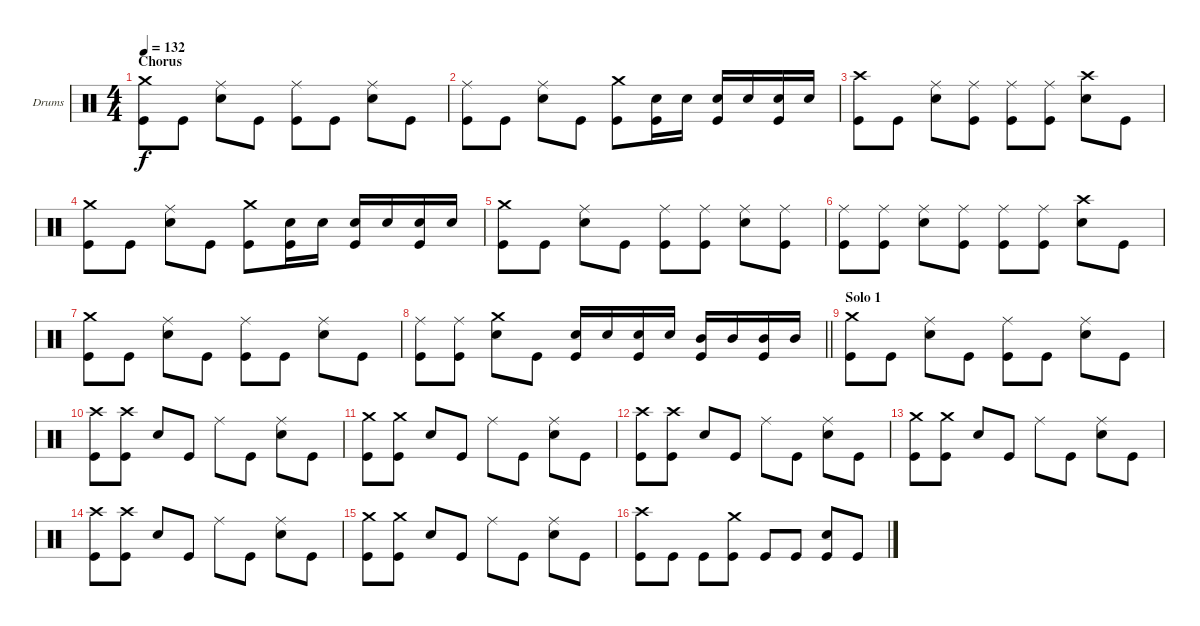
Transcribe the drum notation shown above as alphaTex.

\bracketExtendMode groupsimilarinstruments
\firstSystemTrackNameOrientation horizontal
\otherSystemsTrackNameOrientation horizontal
\track ("Drumkit" "Drums") {instrument percussion}
\staff {score}
\articulation defaults
\ts (4 4)
\section ("" "Chorus")
\tempo 132
\clef neutral
\ks c
("Crash medium (hit)" "Kick (hit)").8{dy f} "Kick (hit)".8 ("Ride (middle)" "Snare (hit) 2").8 "Kick (hit)".8 ("Ride (middle)" "Kick (hit)").8 "Kick (hit)".8 ("Ride (middle)" "Snare (hit) 2").8 "Kick (hit)".8 |
("Ride (middle)" "Kick (hit)").8 "Kick (hit)".8 ("Ride (middle)" "Snare (hit) 2").8 "Kick (hit)".8 ("Crash medium (hit)" "Kick (hit)").8 ("Snare (hit) 2" "Kick (hit)").16 "Snare (hit) 2".16 ("Snare (hit) 2" "Kick (hit)").16 "Snare (hit) 2".16 ("Snare (hit) 2" "Kick (hit)").16 "Snare (hit) 2".16 |
("Crash high (hit)" "Kick (hit)").8 "Kick (hit)".8 ("Ride (middle)" "Snare (hit) 2").8 ("Ride (middle)" "Kick (hit)").8 ("Ride (middle)" "Kick (hit)").8 ("Ride (middle)" "Kick (hit)").8 ("Crash high (hit)" "Snare (hit) 2").8 "Kick (hit)".8 |
("Crash medium (hit)" "Kick (hit)").8 "Kick (hit)".8 ("Ride (middle)" "Snare (hit) 2").8 "Kick (hit)".8 ("Crash medium (hit)" "Kick (hit)").8 ("Snare (hit) 2" "Kick (hit)").16 "Snare (hit) 2".16 ("Snare (hit) 2" "Kick (hit)").16 "Snare (hit) 2".16 ("Snare (hit) 2" "Kick (hit)").16 "Snare (hit) 2".16 |
("Crash medium (hit)" "Kick (hit)").8 "Kick (hit)".8 ("Ride (middle)" "Snare (hit) 2").8 "Kick (hit)".8 ("Ride (middle)" "Kick (hit)").8 ("Ride (middle)" "Kick (hit)").8 ("Ride (middle)" "Snare (hit) 2").8 ("Ride (middle)" "Kick (hit)").8 |
("Ride (middle)" "Kick (hit)").8 ("Ride (middle)" "Kick (hit)").8 ("Ride (middle)" "Snare (hit) 2").8 ("Ride (middle)" "Kick (hit)").8 ("Ride (middle)" "Kick (hit)").8 ("Ride (middle)" "Kick (hit)").8 ("Crash high (hit)" "Snare (hit) 2").8 "Kick (hit)".8 |
("Crash medium (hit)" "Kick (hit)").8 "Kick (hit)".8 ("Ride (middle)" "Snare (hit) 2").8 "Kick (hit)".8 ("Ride (middle)" "Kick (hit)").8 "Kick (hit)".8 ("Ride (middle)" "Snare (hit) 2").8 "Kick (hit)".8 |
\barLineRight lightlight
("Ride (middle)" "Kick (hit)").8 ("Ride (middle)" "Kick (hit)").8 ("Crash medium (hit)" "Snare (hit) 2").8 "Kick (hit)".8 ("Snare (hit) 2" "Kick (hit)").16 "Snare (hit) 2".16 ("Snare (hit) 2" "Kick (hit)").16 "Snare (hit) 2".16 ("Mid Tom (hit)" "Kick (hit)").16 "Mid Tom (hit)".16 ("Mid Tom (hit)" "Kick (hit)").16 "Mid Tom (hit)".16 |
\section ("" "Solo 1")
("Crash medium (hit)" "Kick (hit)").8 "Kick (hit)".8 ("Ride (middle)" "Snare (hit) 2").8 "Kick (hit)".8 ("Ride (middle)" "Kick (hit)").8 "Kick (hit)".8 ("Ride (middle)" "Snare (hit) 2").8 "Kick (hit)".8 |
("Crash high (hit)" "Kick (hit)").8 ("Crash high (hit)" "Kick (hit)").8 "Snare (hit) 2".8 "Kick (hit)".8 "Ride (middle)".8 "Kick (hit)".8 ("Ride (middle)" "Snare (hit) 2").8 "Kick (hit)".8 |
("Crash medium (hit)" "Kick (hit)").8 ("Crash medium (hit)" "Kick (hit)").8 "Snare (hit) 2".8 "Kick (hit)".8 "Ride (middle)".8 "Kick (hit)".8 ("Ride (middle)" "Snare (hit) 2").8 "Kick (hit)".8 |
("Crash high (hit)" "Kick (hit)").8 ("Crash high (hit)" "Kick (hit)").8 "Snare (hit) 2".8 "Kick (hit)".8 "Ride (middle)".8 "Kick (hit)".8 ("Ride (middle)" "Snare (hit) 2").8 "Kick (hit)".8 |
("Crash medium (hit)" "Kick (hit)").8 ("Crash medium (hit)" "Kick (hit)").8 "Snare (hit) 2".8 "Kick (hit)".8 "Ride (middle)".8 "Kick (hit)".8 ("Ride (middle)" "Snare (hit) 2").8 "Kick (hit)".8 |
("Crash high (hit)" "Kick (hit)").8 ("Crash high (hit)" "Kick (hit)").8 "Snare (hit) 2".8 "Kick (hit)".8 "Ride (middle)".8 "Kick (hit)".8 ("Ride (middle)" "Snare (hit) 2").8 "Kick (hit)".8 |
("Crash medium (hit)" "Kick (hit)").8 ("Crash medium (hit)" "Kick (hit)").8 "Snare (hit) 2".8 "Kick (hit)".8 "Ride (middle)".8 "Kick (hit)".8 ("Ride (middle)" "Snare (hit) 2").8 "Kick (hit)".8 |
("Crash high (hit)" "Kick (hit)").8 "Kick (hit)".8 "Kick (hit)".8 ("Crash medium (hit)" "Kick (hit)").8 "Kick (hit)".8 "Kick (hit)".8 ("Snare (hit) 2" "Kick (hit)").8 "Kick (hit)".8
